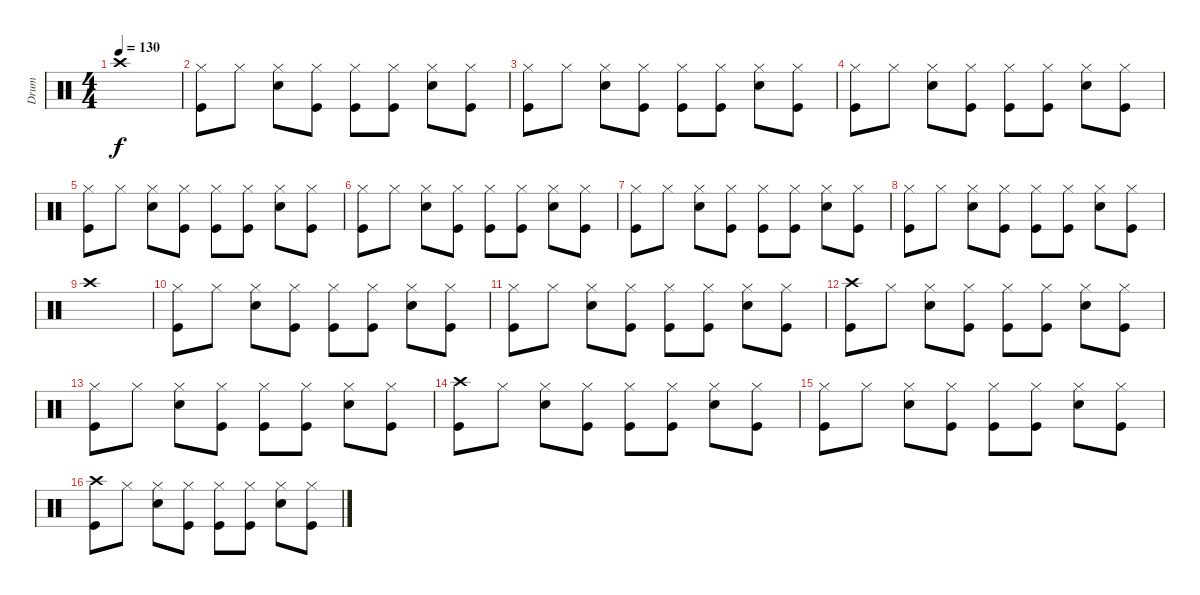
\track ("Drum" "Drum") {instrument percussion}
\staff {score}
\articulation defaults
\ts (4 4)
\tempo 130
\clef neutral
\ks c "Crash high (hit)".1{dy f}
|
("Hi-Hat (closed)" "Kick (hit)").8 "Hi-Hat (closed)".8 ("Hi-Hat (closed)" "Electric Snare (hit)").8 ("Hi-Hat (closed)" "Kick (hit)").8 ("Hi-Hat (closed)" "Kick (hit)").8 ("Hi-Hat (closed)" "Kick (hit)").8 ("Hi-Hat (closed)" "Electric Snare (hit)").8 ("Hi-Hat (closed)" "Kick (hit)").8 |
("Hi-Hat (closed)" "Kick (hit)").8 "Hi-Hat (closed)".8 ("Hi-Hat (closed)" "Electric Snare (hit)").8 ("Hi-Hat (closed)" "Kick (hit)").8 ("Hi-Hat (closed)" "Kick (hit)").8 ("Hi-Hat (closed)" "Kick (hit)").8 ("Hi-Hat (closed)" "Electric Snare (hit)").8 ("Hi-Hat (closed)" "Kick (hit)").8 |
("Hi-Hat (closed)" "Kick (hit)").8 "Hi-Hat (closed)".8 ("Hi-Hat (closed)" "Electric Snare (hit)").8 ("Hi-Hat (closed)" "Kick (hit)").8 ("Hi-Hat (closed)" "Kick (hit)").8 ("Hi-Hat (closed)" "Kick (hit)").8 ("Hi-Hat (closed)" "Electric Snare (hit)").8 ("Hi-Hat (closed)" "Kick (hit)").8 |
("Hi-Hat (closed)" "Kick (hit)").8 "Hi-Hat (closed)".8 ("Hi-Hat (closed)" "Electric Snare (hit)").8 ("Hi-Hat (closed)" "Kick (hit)").8 ("Hi-Hat (closed)" "Kick (hit)").8 ("Hi-Hat (closed)" "Kick (hit)").8 ("Hi-Hat (closed)" "Electric Snare (hit)").8 ("Hi-Hat (closed)" "Kick (hit)").8 |
("Hi-Hat (closed)" "Kick (hit)").8 "Hi-Hat (closed)".8 ("Hi-Hat (closed)" "Electric Snare (hit)").8 ("Hi-Hat (closed)" "Kick (hit)").8 ("Hi-Hat (closed)" "Kick (hit)").8 ("Hi-Hat (closed)" "Kick (hit)").8 ("Hi-Hat (closed)" "Electric Snare (hit)").8 ("Hi-Hat (closed)" "Kick (hit)").8 |
("Hi-Hat (closed)" "Kick (hit)").8 "Hi-Hat (closed)".8 ("Hi-Hat (closed)" "Electric Snare (hit)").8 ("Hi-Hat (closed)" "Kick (hit)").8 ("Hi-Hat (closed)" "Kick (hit)").8 ("Hi-Hat (closed)" "Kick (hit)").8 ("Hi-Hat (closed)" "Electric Snare (hit)").8 ("Hi-Hat (closed)" "Kick (hit)").8 |
("Hi-Hat (closed)" "Kick (hit)").8 "Hi-Hat (closed)".8 ("Hi-Hat (closed)" "Electric Snare (hit)").8 ("Hi-Hat (closed)" "Kick (hit)").8 ("Hi-Hat (closed)" "Kick (hit)").8 ("Hi-Hat (closed)" "Kick (hit)").8 ("Hi-Hat (closed)" "Electric Snare (hit)").8 ("Hi-Hat (closed)" "Kick (hit)").8 |
"Crash high (hit)".1 |
("Hi-Hat (closed)" "Kick (hit)").8 "Hi-Hat (closed)".8 ("Hi-Hat (closed)" "Electric Snare (hit)").8 ("Hi-Hat (closed)" "Kick (hit)").8 ("Hi-Hat (closed)" "Kick (hit)").8 ("Hi-Hat (closed)" "Kick (hit)").8 ("Hi-Hat (closed)" "Electric Snare (hit)").8 ("Hi-Hat (closed)" "Kick (hit)").8 |
("Hi-Hat (closed)" "Kick (hit)").8 "Hi-Hat (closed)".8 ("Hi-Hat (closed)" "Electric Snare (hit)").8 ("Hi-Hat (closed)" "Kick (hit)").8 ("Hi-Hat (closed)" "Kick (hit)").8 ("Hi-Hat (closed)" "Kick (hit)").8 ("Hi-Hat (closed)" "Electric Snare (hit)").8 ("Hi-Hat (closed)" "Kick (hit)").8 |
("Crash high (hit)" "Kick (hit)").8 "Hi-Hat (closed)".8 ("Hi-Hat (closed)" "Electric Snare (hit)").8 ("Hi-Hat (closed)" "Kick (hit)").8 ("Hi-Hat (closed)" "Kick (hit)").8 ("Hi-Hat (closed)" "Kick (hit)").8 ("Hi-Hat (closed)" "Electric Snare (hit)").8 ("Hi-Hat (closed)" "Kick (hit)").8 |
("Hi-Hat (closed)" "Kick (hit)").8 "Hi-Hat (closed)".8 ("Hi-Hat (closed)" "Electric Snare (hit)").8 ("Hi-Hat (closed)" "Kick (hit)").8 ("Hi-Hat (closed)" "Kick (hit)").8 ("Hi-Hat (closed)" "Kick (hit)").8 ("Hi-Hat (closed)" "Electric Snare (hit)").8 ("Hi-Hat (closed)" "Kick (hit)").8 |
("Crash high (hit)" "Kick (hit)").8 "Hi-Hat (closed)".8 ("Hi-Hat (closed)" "Electric Snare (hit)").8 ("Hi-Hat (closed)" "Kick (hit)").8 ("Hi-Hat (closed)" "Kick (hit)").8 ("Hi-Hat (closed)" "Kick (hit)").8 ("Hi-Hat (closed)" "Electric Snare (hit)").8 ("Hi-Hat (closed)" "Kick (hit)").8 |
("Hi-Hat (closed)" "Kick (hit)").8 "Hi-Hat (closed)".8 ("Hi-Hat (closed)" "Electric Snare (hit)").8 ("Hi-Hat (closed)" "Kick (hit)").8 ("Hi-Hat (closed)" "Kick (hit)").8 ("Hi-Hat (closed)" "Kick (hit)").8 ("Hi-Hat (closed)" "Electric Snare (hit)").8 ("Hi-Hat (closed)" "Kick (hit)").8 |
("Crash high (hit)" "Kick (hit)").8 "Hi-Hat (closed)".8 ("Hi-Hat (closed)" "Electric Snare (hit)").8 ("Hi-Hat (closed)" "Kick (hit)").8 ("Hi-Hat (closed)" "Kick (hit)").8 ("Hi-Hat (closed)" "Kick (hit)").8 ("Hi-Hat (closed)" "Electric Snare (hit)").8 ("Hi-Hat (closed)" "Kick (hit)").8
